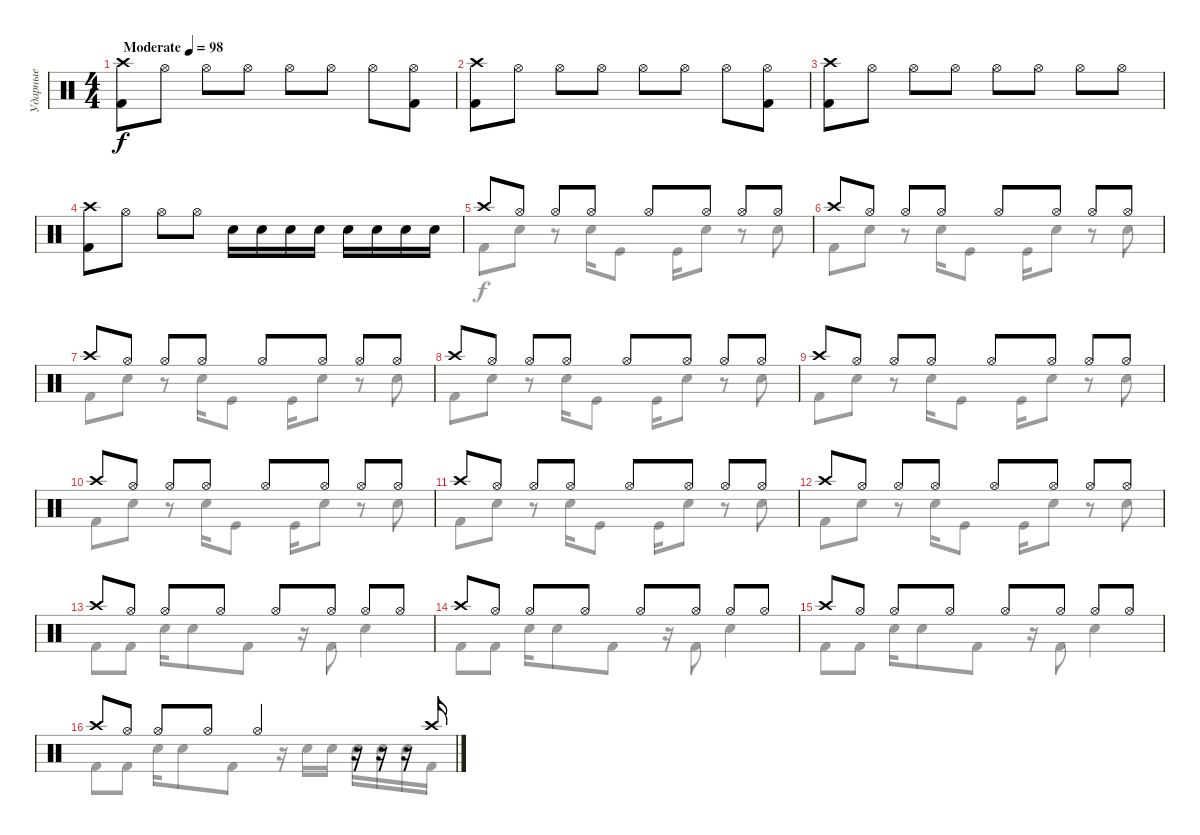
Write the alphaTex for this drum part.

\track ("Ударные" "Ударные") {instrument percussion}
\staff {score}
\articulation defaults
\voice
\ts (4 4)
\tempo (98 "Moderate")
\clef neutral
\ks c
("Crash high (hit)" "Kick (hit) 2").8{dy f} "Hi-Hat (open)".8 "Hi-Hat (open)".8 "Hi-Hat (open)".8 "Hi-Hat (open)".8 "Hi-Hat (open)".8 "Hi-Hat (open)".8 ("Hi-Hat (open)" "Kick (hit) 2").8 |
("Crash high (hit)" "Kick (hit) 2").8 "Hi-Hat (open)".8 "Hi-Hat (open)".8 "Hi-Hat (open)".8 "Hi-Hat (open)".8 "Hi-Hat (open)".8 "Hi-Hat (open)".8 ("Hi-Hat (open)" "Kick (hit) 2").8 |
("Crash high (hit)" "Kick (hit) 2").8 "Hi-Hat (open)".8 "Hi-Hat (open)".8 "Hi-Hat (open)".8 "Hi-Hat (open)".8 "Hi-Hat (open)".8 "Hi-Hat (open)".8 "Hi-Hat (open)".8 |
("Crash high (hit)" "Kick (hit) 2").8 "Hi-Hat (open)".8 "Hi-Hat (open)".8 "Hi-Hat (open)".8 "Snare (hit) 2".16 "Snare (hit) 2".16 "Snare (hit) 2".16 "Snare (hit) 2".16 "Snare (hit) 2".16 "Snare (hit) 2".16 "Snare (hit) 2".16 "Snare (hit) 2".16 |
"Crash high (hit)".8 "Hi-Hat (open)".8 "Hi-Hat (open)".8 "Hi-Hat (open)".8 "Hi-Hat (open)".8 "Hi-Hat (open)".8 "Hi-Hat (open)".8 "Hi-Hat (open)".8 |
"Crash high (hit)".8 "Hi-Hat (open)".8 "Hi-Hat (open)".8 "Hi-Hat (open)".8 "Hi-Hat (open)".8 "Hi-Hat (open)".8 "Hi-Hat (open)".8 "Hi-Hat (open)".8 |
"Crash high (hit)".8 "Hi-Hat (open)".8 "Hi-Hat (open)".8 "Hi-Hat (open)".8 "Hi-Hat (open)".8 "Hi-Hat (open)".8 "Hi-Hat (open)".8 "Hi-Hat (open)".8 |
"Crash high (hit)".8 "Hi-Hat (open)".8 "Hi-Hat (open)".8 "Hi-Hat (open)".8 "Hi-Hat (open)".8 "Hi-Hat (open)".8 "Hi-Hat (open)".8 "Hi-Hat (open)".8 |
"Crash high (hit)".8 "Hi-Hat (open)".8 "Hi-Hat (open)".8 "Hi-Hat (open)".8 "Hi-Hat (open)".8 "Hi-Hat (open)".8 "Hi-Hat (open)".8 "Hi-Hat (open)".8 |
"Crash high (hit)".8 "Hi-Hat (open)".8 "Hi-Hat (open)".8 "Hi-Hat (open)".8 "Hi-Hat (open)".8 "Hi-Hat (open)".8 "Hi-Hat (open)".8 "Hi-Hat (open)".8 |
"Crash high (hit)".8 "Hi-Hat (open)".8 "Hi-Hat (open)".8 "Hi-Hat (open)".8 "Hi-Hat (open)".8 "Hi-Hat (open)".8 "Hi-Hat (open)".8 "Hi-Hat (open)".8 |
"Crash high (hit)".8 "Hi-Hat (open)".8 "Hi-Hat (open)".8 "Hi-Hat (open)".8 "Hi-Hat (open)".8 "Hi-Hat (open)".8 "Hi-Hat (open)".8 "Hi-Hat (open)".8 |
"Crash high (hit)".8 "Hi-Hat (open)".8 "Hi-Hat (open)".8 "Hi-Hat (open)".8 "Hi-Hat (open)".8 "Hi-Hat (open)".8 "Hi-Hat (open)".8 "Hi-Hat (open)".8 |
"Crash high (hit)".8 "Hi-Hat (open)".8 "Hi-Hat (open)".8 "Hi-Hat (open)".8 "Hi-Hat (open)".8 "Hi-Hat (open)".8 "Hi-Hat (open)".8 "Hi-Hat (open)".8 |
"Crash high (hit)".8 "Hi-Hat (open)".8 "Hi-Hat (open)".8 "Hi-Hat (open)".8 "Hi-Hat (open)".8 "Hi-Hat (open)".8 "Hi-Hat (open)".8 "Hi-Hat (open)".8 |
"Crash high (hit)".8 "Hi-Hat (open)".8 "Hi-Hat (open)".8 "Hi-Hat (open)".8 "Hi-Hat (open)".4 r.16 r.16 r.16 "Crash high (hit)".16
\voice
\clef neutral
\ottava regular
\simile none
\ks c
|
|
|
|
"Kick (hit) 2".8 "Snare (hit) 2".8 r.8 "Snare (hit) 2".16 "Kick (hit)".8 "Kick (hit)".16 "Snare (hit) 2".8 r.8 "Snare (hit) 2".8 |
"Kick (hit) 2".8 "Snare (hit) 2".8 r.8 "Snare (hit) 2".16 "Kick (hit)".8 "Kick (hit)".16 "Snare (hit) 2".8 r.8 "Snare (hit) 2".8 |
"Kick (hit) 2".8 "Snare (hit) 2".8 r.8 "Snare (hit) 2".16 "Kick (hit)".8 "Kick (hit)".16 "Snare (hit) 2".8 r.8 "Snare (hit) 2".8 |
"Kick (hit) 2".8 "Snare (hit) 2".8 r.8 "Snare (hit) 2".16 "Kick (hit)".8 "Kick (hit)".16 "Snare (hit) 2".8 r.8 "Snare (hit) 2".8 |
"Kick (hit) 2".8 "Snare (hit) 2".8 r.8 "Snare (hit) 2".16 "Kick (hit)".8 "Kick (hit)".16 "Snare (hit) 2".8 r.8 "Snare (hit) 2".8 |
"Kick (hit) 2".8 "Snare (hit) 2".8 r.8 "Snare (hit) 2".16 "Kick (hit)".8 "Kick (hit)".16 "Snare (hit) 2".8 r.8 "Snare (hit) 2".8 |
"Kick (hit) 2".8 "Snare (hit) 2".8 r.8 "Snare (hit) 2".16 "Kick (hit)".8 "Kick (hit)".16 "Snare (hit) 2".8 r.8 "Snare (hit) 2".8 |
"Kick (hit) 2".8 "Snare (hit) 2".8 r.8 "Snare (hit) 2".16 "Kick (hit)".8 "Kick (hit)".16 "Snare (hit) 2".8 r.8 "Snare (hit) 2".8 |
"Kick (hit) 2".8 "Kick (hit) 2".8 "Snare (hit) 2".16 "Snare (hit) 2".8 "Kick (hit) 2".8 r.16 "Kick (hit) 2".8 "Snare (hit) 2".4 |
"Kick (hit) 2".8 "Kick (hit) 2".8 "Snare (hit) 2".16 "Snare (hit) 2".8 "Kick (hit) 2".8 r.16 "Kick (hit) 2".8 "Snare (hit) 2".4 |
"Kick (hit) 2".8 "Kick (hit) 2".8 "Snare (hit) 2".16 "Snare (hit) 2".8 "Kick (hit) 2".8 r.16 "Kick (hit) 2".8 "Snare (hit) 2".4 |
"Kick (hit) 2".8 "Kick (hit) 2".8 "Snare (hit) 2".16 "Snare (hit) 2".8 "Kick (hit) 2".8 r.16 "Snare (hit) 2".16 "Snare (hit) 2".16 "Snare (hit) 2".16 "Snare (hit) 2".16 "Snare (hit) 2".16 "Kick (hit) 2".16
